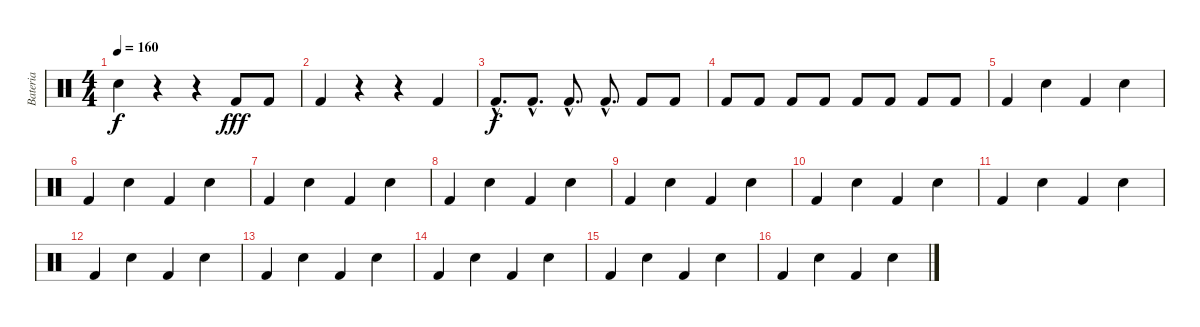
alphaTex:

\track ("Bateria" "Bateria") {instrument percussion}
\staff {score}
\articulation defaults
\ts (4 4)
\tempo 160
\clef neutral
\ks c "Snare (hit) 2".4{dy f}
r.4 r.4 "Kick (hit) 2".8{dy fff} "Kick (hit) 2".8 |
"Kick (hit) 2".4 r.4 r.4 "Kick (hit) 2".4 |
"Kick (hit) 2"{hac}.8{d dy f} "Kick (hit) 2"{hac}.8{d} "Kick (hit) 2"{hac}.8{d} "Kick (hit) 2"{hac}.8{d} "Kick (hit) 2".8 "Kick (hit) 2".8 |
"Kick (hit) 2".8 "Kick (hit) 2".8 "Kick (hit) 2".8 "Kick (hit) 2".8 "Kick (hit) 2".8 "Kick (hit) 2".8 "Kick (hit) 2".8 "Kick (hit) 2".8 |
"Kick (hit) 2".4 "Snare (hit) 2".4 "Kick (hit) 2".4 "Snare (hit) 2".4 |
"Kick (hit) 2".4 "Snare (hit) 2".4 "Kick (hit) 2".4 "Snare (hit) 2".4 |
"Kick (hit) 2".4 "Snare (hit) 2".4 "Kick (hit) 2".4 "Snare (hit) 2".4 |
"Kick (hit) 2".4 "Snare (hit) 2".4 "Kick (hit) 2".4 "Snare (hit) 2".4 |
"Kick (hit) 2".4 "Snare (hit) 2".4 "Kick (hit) 2".4 "Snare (hit) 2".4 |
"Kick (hit) 2".4 "Snare (hit) 2".4 "Kick (hit) 2".4 "Snare (hit) 2".4 |
"Kick (hit) 2".4 "Snare (hit) 2".4 "Kick (hit) 2".4 "Snare (hit) 2".4 |
"Kick (hit) 2".4 "Snare (hit) 2".4 "Kick (hit) 2".4 "Snare (hit) 2".4 |
"Kick (hit) 2".4 "Snare (hit) 2".4 "Kick (hit) 2".4 "Snare (hit) 2".4 |
"Kick (hit) 2".4 "Snare (hit) 2".4 "Kick (hit) 2".4 "Snare (hit) 2".4 |
"Kick (hit) 2".4 "Snare (hit) 2".4 "Kick (hit) 2".4 "Snare (hit) 2".4 |
"Kick (hit) 2".4 "Snare (hit) 2".4 "Kick (hit) 2".4 "Snare (hit) 2".4
